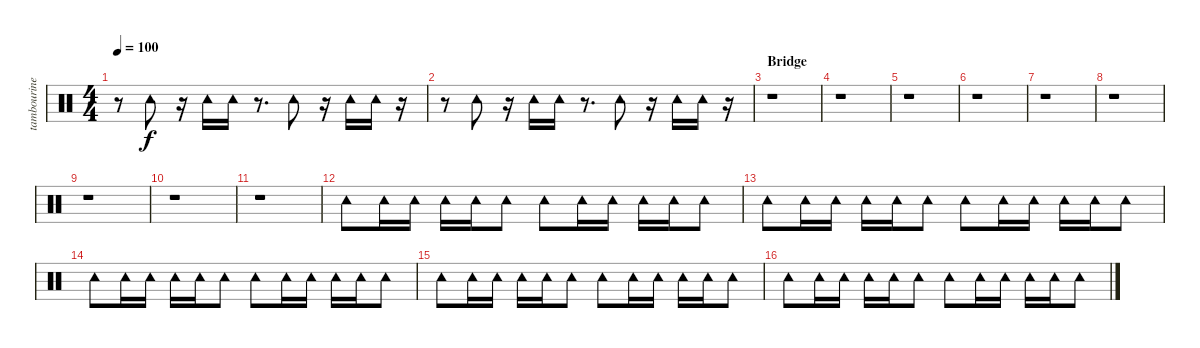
\track ("tambourine (claps)" "tambourine") {instrument percussion}
\staff {score}
\articulation defaults
\ts (4 4)
\tempo 100
\clef neutral
\ks c
r.8{dy f} "Tambourine (hit)".8 r.16 "Tambourine (hit)".16 "Tambourine (hit)".16 r.8{d} "Tambourine (hit)".8 r.16 "Tambourine (hit)".16 "Tambourine (hit)".16 r.16 |
r.8 "Tambourine (hit)".8 r.16 "Tambourine (hit)".16 "Tambourine (hit)".16 r.8{d} "Tambourine (hit)".8 r.16 "Tambourine (hit)".16 "Tambourine (hit)".16 r.16 |
\section ("" "Bridge")
r.1 |
r.1 |
r.1 |
r.1 |
r.1 |
r.1 |
r.1 |
r.1 |
r.1 |
"Tambourine (hit)".8 "Tambourine (hit)".16 "Tambourine (hit)".16 "Tambourine (hit)".16 "Tambourine (hit)".16 "Tambourine (hit)".8 "Tambourine (hit)".8 "Tambourine (hit)".16 "Tambourine (hit)".16 "Tambourine (hit)".16 "Tambourine (hit)".16 "Tambourine (hit)".8 |
"Tambourine (hit)".8 "Tambourine (hit)".16 "Tambourine (hit)".16 "Tambourine (hit)".16 "Tambourine (hit)".16 "Tambourine (hit)".8 "Tambourine (hit)".8 "Tambourine (hit)".16 "Tambourine (hit)".16 "Tambourine (hit)".16 "Tambourine (hit)".16 "Tambourine (hit)".8 |
"Tambourine (hit)".8 "Tambourine (hit)".16 "Tambourine (hit)".16 "Tambourine (hit)".16 "Tambourine (hit)".16 "Tambourine (hit)".8 "Tambourine (hit)".8 "Tambourine (hit)".16 "Tambourine (hit)".16 "Tambourine (hit)".16 "Tambourine (hit)".16 "Tambourine (hit)".8 |
"Tambourine (hit)".8 "Tambourine (hit)".16 "Tambourine (hit)".16 "Tambourine (hit)".16 "Tambourine (hit)".16 "Tambourine (hit)".8 "Tambourine (hit)".8 "Tambourine (hit)".16 "Tambourine (hit)".16 "Tambourine (hit)".16 "Tambourine (hit)".16 "Tambourine (hit)".8 |
"Tambourine (hit)".8 "Tambourine (hit)".16 "Tambourine (hit)".16 "Tambourine (hit)".16 "Tambourine (hit)".16 "Tambourine (hit)".8 "Tambourine (hit)".8 "Tambourine (hit)".16 "Tambourine (hit)".16 "Tambourine (hit)".16 "Tambourine (hit)".16 "Tambourine (hit)".8
